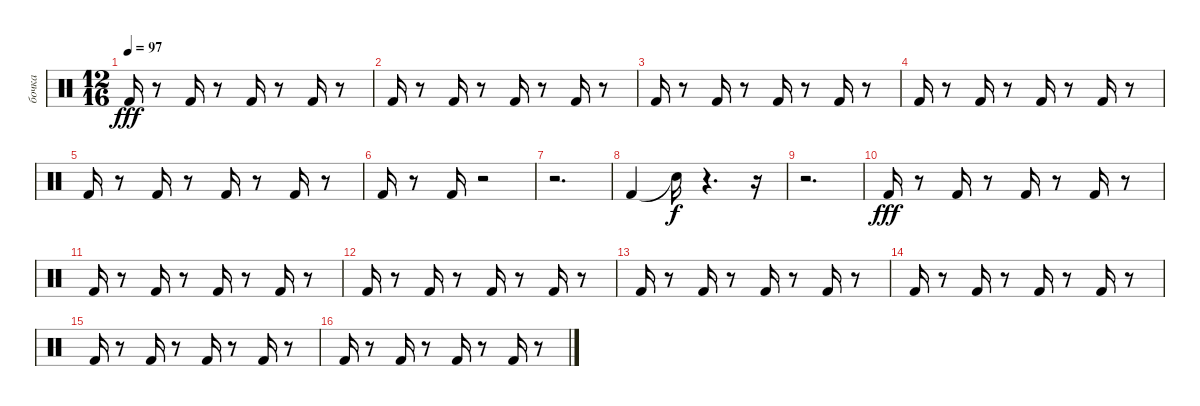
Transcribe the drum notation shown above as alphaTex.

\track ("бочка" "бочка") {instrument percussion}
\staff {score}
\articulation defaults
\ts (12 16)
\tempo 97
\clef neutral
\ks c "Kick (hit) 2".16{dy fff}
r.8 "Kick (hit) 2".16 r.8 "Kick (hit) 2".16 r.8 "Kick (hit) 2".16 r.8 |
"Kick (hit) 2".16 r.8 "Kick (hit) 2".16 r.8 "Kick (hit) 2".16 r.8 "Kick (hit) 2".16 r.8 |
"Kick (hit) 2".16 r.8 "Kick (hit) 2".16 r.8 "Kick (hit) 2".16 r.8 "Kick (hit) 2".16 r.8 |
"Kick (hit) 2".16 r.8 "Kick (hit) 2".16 r.8 "Kick (hit) 2".16 r.8 "Kick (hit) 2".16 r.8 |
"Kick (hit) 2".16 r.8 "Kick (hit) 2".16 r.8 "Kick (hit) 2".16 r.8 "Kick (hit) 2".16 r.8 |
"Kick (hit) 2".16 r.8 "Kick (hit) 2".16 r.2 |
r.2{d} |
"Kick (hit) 2".4 "Snare (hit)"{t}.16{dy f} r.4{d} r.16 |
r.2{d} |
"Kick (hit) 2".16{dy fff} r.8 "Kick (hit) 2".16 r.8 "Kick (hit) 2".16 r.8 "Kick (hit) 2".16 r.8 |
"Kick (hit) 2".16 r.8 "Kick (hit) 2".16 r.8 "Kick (hit) 2".16 r.8 "Kick (hit) 2".16 r.8 |
"Kick (hit) 2".16 r.8 "Kick (hit) 2".16 r.8 "Kick (hit) 2".16 r.8 "Kick (hit) 2".16 r.8 |
"Kick (hit) 2".16 r.8 "Kick (hit) 2".16 r.8 "Kick (hit) 2".16 r.8 "Kick (hit) 2".16 r.8 |
"Kick (hit) 2".16 r.8 "Kick (hit) 2".16 r.8 "Kick (hit) 2".16 r.8 "Kick (hit) 2".16 r.8 |
"Kick (hit) 2".16 r.8 "Kick (hit) 2".16 r.8 "Kick (hit) 2".16 r.8 "Kick (hit) 2".16 r.8 |
"Kick (hit) 2".16 r.8 "Kick (hit) 2".16 r.8 "Kick (hit) 2".16 r.8 "Kick (hit) 2".16 r.8
